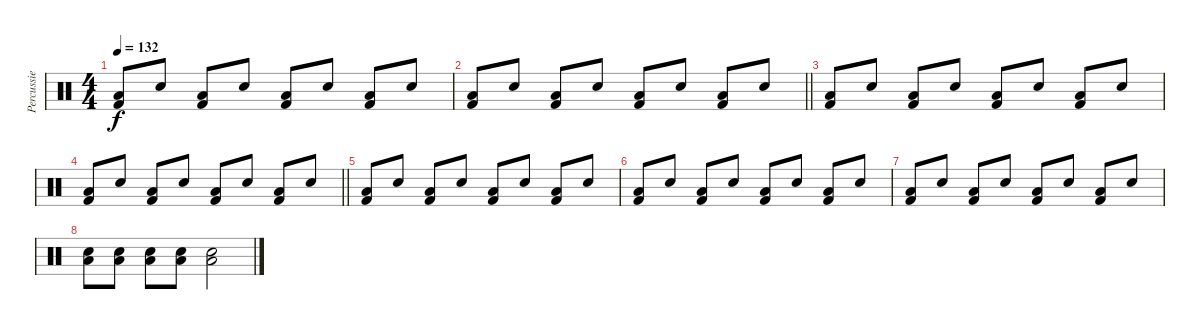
\track ("Percussie" "Percussie") {instrument percussion}
\staff {score}
\articulation defaults
\ts (4 4)
\tempo 132
\clef neutral
\ks c
("Low Floor Tom (hit)" "Kick (hit) 2").8{dy f} "Snare (hit) 2".8 ("Low Floor Tom (hit)" "Kick (hit) 2").8 "Snare (hit) 2".8 ("Low Floor Tom (hit)" "Kick (hit) 2").8 "Snare (hit) 2".8 ("Low Floor Tom (hit)" "Kick (hit) 2").8 "Snare (hit) 2".8 |
\barLineRight lightlight
("Low Floor Tom (hit)" "Kick (hit) 2").8 "Snare (hit) 2".8 ("Low Floor Tom (hit)" "Kick (hit) 2").8 "Snare (hit) 2".8 ("Low Floor Tom (hit)" "Kick (hit) 2").8 "Snare (hit) 2".8 ("Low Floor Tom (hit)" "Kick (hit) 2").8 "Snare (hit) 2".8 |
("Low Floor Tom (hit)" "Kick (hit) 2").8 "Snare (hit) 2".8 ("Low Floor Tom (hit)" "Kick (hit) 2").8 "Snare (hit) 2".8 ("Low Floor Tom (hit)" "Kick (hit) 2").8 "Snare (hit) 2".8 ("Low Floor Tom (hit)" "Kick (hit) 2").8 "Snare (hit) 2".8 |
\barLineRight lightlight
("Low Floor Tom (hit)" "Kick (hit) 2").8 "Snare (hit) 2".8 ("Low Floor Tom (hit)" "Kick (hit) 2").8 "Snare (hit) 2".8 ("Low Floor Tom (hit)" "Kick (hit) 2").8 "Snare (hit) 2".8 ("Low Floor Tom (hit)" "Kick (hit) 2").8 "Snare (hit) 2".8 |
("Low Floor Tom (hit)" "Kick (hit) 2").8 "Snare (hit) 2".8 ("Low Floor Tom (hit)" "Kick (hit) 2").8 "Snare (hit) 2".8 ("Low Floor Tom (hit)" "Kick (hit) 2").8 "Snare (hit) 2".8 ("Low Floor Tom (hit)" "Kick (hit) 2").8 "Snare (hit) 2".8 |
("Low Floor Tom (hit)" "Kick (hit) 2").8 "Snare (hit) 2".8 ("Low Floor Tom (hit)" "Kick (hit) 2").8 "Snare (hit) 2".8 ("Low Floor Tom (hit)" "Kick (hit) 2").8 "Snare (hit) 2".8 ("Low Floor Tom (hit)" "Kick (hit) 2").8 "Snare (hit) 2".8 |
("Low Floor Tom (hit)" "Kick (hit) 2").8 "Snare (hit) 2".8 ("Low Floor Tom (hit)" "Kick (hit) 2").8 "Snare (hit) 2".8 ("Low Floor Tom (hit)" "Kick (hit) 2").8 "Snare (hit) 2".8 ("Low Floor Tom (hit)" "Kick (hit) 2").8 "Snare (hit) 2".8 |
("Low Floor Tom (hit)" "Snare (hit) 2").8 ("Low Floor Tom (hit)" "Snare (hit) 2").8 ("Low Floor Tom (hit)" "Snare (hit) 2").8 ("Low Floor Tom (hit)" "Snare (hit) 2").8 ("Low Floor Tom (hit)" "Snare (hit) 2").2
